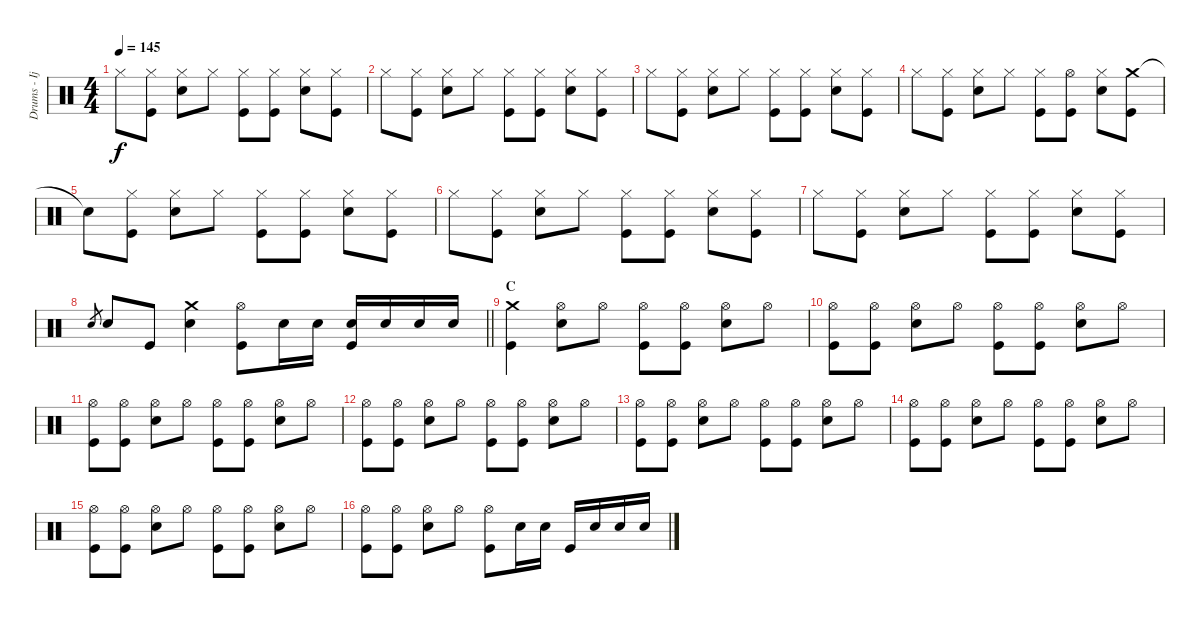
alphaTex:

\track ("Drums - Ijichi" "Drums - Ij") {instrument percussion}
\staff {score}
\articulation defaults
\ts (4 4)
\tempo 145
\clef neutral
\ks c "Hi-Hat (closed)"{t}.8{dy f}
("Hi-Hat (closed)" "Kick (hit)").8 ("Hi-Hat (closed)" "Electric Snare (hit)").8 "Hi-Hat (closed)".8 ("Hi-Hat (closed)" "Kick (hit)").8 ("Hi-Hat (closed)" "Kick (hit)").8 ("Hi-Hat (closed)" "Electric Snare (hit)").8 ("Hi-Hat (closed)" "Kick (hit)").8 |
"Hi-Hat (closed)".8 ("Hi-Hat (closed)" "Kick (hit)").8 ("Hi-Hat (closed)" "Electric Snare (hit)").8 "Hi-Hat (closed)".8 ("Hi-Hat (closed)" "Kick (hit)").8 ("Hi-Hat (closed)" "Kick (hit)").8 ("Hi-Hat (closed)" "Electric Snare (hit)").8 ("Hi-Hat (closed)" "Kick (hit)").8 |
"Hi-Hat (closed)".8 ("Hi-Hat (closed)" "Kick (hit)").8 ("Hi-Hat (closed)" "Electric Snare (hit)").8 "Hi-Hat (closed)".8 ("Hi-Hat (closed)" "Kick (hit)").8 ("Hi-Hat (closed)" "Kick (hit)").8 ("Hi-Hat (closed)" "Electric Snare (hit)").8 ("Hi-Hat (closed)" "Kick (hit)").8 |
"Hi-Hat (closed)".8 ("Hi-Hat (closed)" "Kick (hit)").8 ("Hi-Hat (closed)" "Electric Snare (hit)").8 "Hi-Hat (closed)".8 ("Hi-Hat (closed)" "Kick (hit)").8 ("Hi-Hat (open)" "Kick (hit)").8 ("Hi-Hat (closed)" "Electric Snare (hit)").8 ("Crash medium (hit)" "Kick (hit)").8 |
"Snare (hit)"{t}.8 ("Hi-Hat (closed)" "Kick (hit)").8 ("Hi-Hat (closed)" "Electric Snare (hit)").8 "Hi-Hat (closed)".8 ("Hi-Hat (closed)" "Kick (hit)").8 ("Hi-Hat (closed)" "Kick (hit)").8 ("Hi-Hat (closed)" "Electric Snare (hit)").8 ("Hi-Hat (closed)" "Kick (hit)").8 |
"Hi-Hat (closed)".8 ("Hi-Hat (closed)" "Kick (hit)").8 ("Hi-Hat (closed)" "Electric Snare (hit)").8 "Hi-Hat (closed)".8 ("Hi-Hat (closed)" "Kick (hit)").8 ("Hi-Hat (closed)" "Kick (hit)").8 ("Hi-Hat (closed)" "Electric Snare (hit)").8 ("Hi-Hat (closed)" "Kick (hit)").8 |
"Hi-Hat (closed)".8 ("Hi-Hat (closed)" "Kick (hit)").8 ("Hi-Hat (closed)" "Electric Snare (hit)").8 "Hi-Hat (closed)".8 ("Hi-Hat (closed)" "Kick (hit)").8 ("Hi-Hat (closed)" "Kick (hit)").8 ("Hi-Hat (closed)" "Electric Snare (hit)").8 ("Hi-Hat (closed)" "Kick (hit)").8 |
\barLineRight lightlight "Electric Snare (hit)".8{gr} "Electric Snare (hit)".8 "Kick (hit)".8
("Crash medium (hit)" "Electric Snare (hit)").4 ("Hi-Hat (open)" "Kick (hit)").8 "Electric Snare (hit)".16 "Electric Snare (hit)".16 ("Electric Snare (hit)" "Kick (hit)").16 "Electric Snare (hit)".16 "Electric Snare (hit)".16 "Electric Snare (hit)".16 |
\section ("" "C")
("Crash medium (hit)" "Kick (hit)").4 ("Hi-Hat (open)" "Electric Snare (hit)").8 "Hi-Hat (open)".8 ("Hi-Hat (open)" "Kick (hit)").8 ("Hi-Hat (open)" "Kick (hit)").8 ("Hi-Hat (open)" "Electric Snare (hit)").8 "Hi-Hat (open)".8 |
("Hi-Hat (open)" "Kick (hit)").8 ("Hi-Hat (open)" "Kick (hit)").8 ("Hi-Hat (open)" "Electric Snare (hit)").8 "Hi-Hat (open)".8 ("Hi-Hat (open)" "Kick (hit)").8 ("Hi-Hat (open)" "Kick (hit)").8 ("Hi-Hat (open)" "Electric Snare (hit)").8 "Hi-Hat (open)".8 |
("Hi-Hat (open)" "Kick (hit)").8 ("Hi-Hat (open)" "Kick (hit)").8 ("Hi-Hat (open)" "Electric Snare (hit)").8 "Hi-Hat (open)".8 ("Hi-Hat (open)" "Kick (hit)").8 ("Hi-Hat (open)" "Kick (hit)").8 ("Hi-Hat (open)" "Electric Snare (hit)").8 "Hi-Hat (open)".8 |
("Hi-Hat (open)" "Kick (hit)").8 ("Hi-Hat (open)" "Kick (hit)").8 ("Hi-Hat (open)" "Electric Snare (hit)").8 "Hi-Hat (open)".8 ("Hi-Hat (open)" "Kick (hit)").8 ("Hi-Hat (open)" "Kick (hit)").8 ("Hi-Hat (open)" "Electric Snare (hit)").8 "Hi-Hat (open)".8 |
("Hi-Hat (open)" "Kick (hit)").8 ("Hi-Hat (open)" "Kick (hit)").8 ("Hi-Hat (open)" "Electric Snare (hit)").8 "Hi-Hat (open)".8 ("Hi-Hat (open)" "Kick (hit)").8 ("Hi-Hat (open)" "Kick (hit)").8 ("Hi-Hat (open)" "Electric Snare (hit)").8 "Hi-Hat (open)".8 |
("Hi-Hat (open)" "Kick (hit)").8 ("Hi-Hat (open)" "Kick (hit)").8 ("Hi-Hat (open)" "Electric Snare (hit)").8 "Hi-Hat (open)".8 ("Hi-Hat (open)" "Kick (hit)").8 ("Hi-Hat (open)" "Kick (hit)").8 ("Hi-Hat (open)" "Electric Snare (hit)").8 "Hi-Hat (open)".8 |
("Hi-Hat (open)" "Kick (hit)").8 ("Hi-Hat (open)" "Kick (hit)").8 ("Hi-Hat (open)" "Electric Snare (hit)").8 "Hi-Hat (open)".8 ("Hi-Hat (open)" "Kick (hit)").8 ("Hi-Hat (open)" "Kick (hit)").8 ("Hi-Hat (open)" "Electric Snare (hit)").8 "Hi-Hat (open)".8 |
("Hi-Hat (open)" "Kick (hit)").8 ("Hi-Hat (open)" "Kick (hit)").8 ("Hi-Hat (open)" "Electric Snare (hit)").8 "Hi-Hat (open)".8 ("Hi-Hat (open)" "Kick (hit)").8 "Electric Snare (hit)".16 "Electric Snare (hit)".16 "Kick (hit)".16 "Electric Snare (hit)".16 "Electric Snare (hit)".16 "Electric Snare (hit)".16
